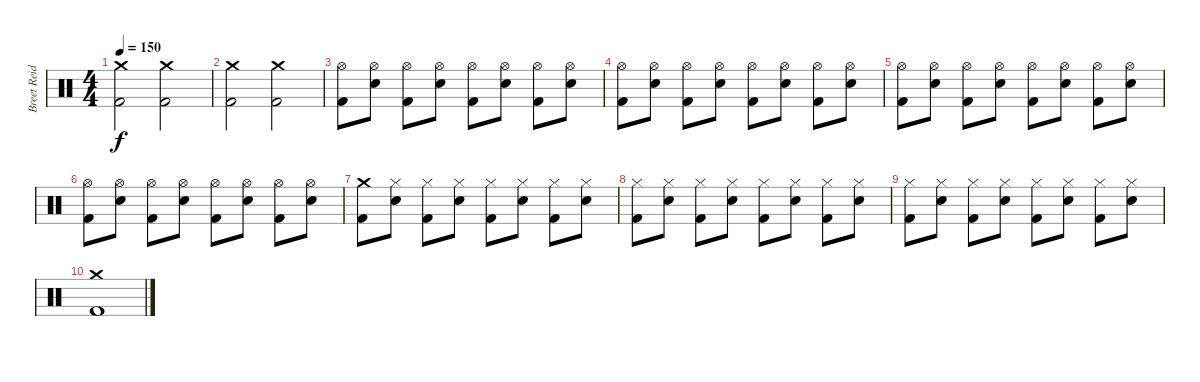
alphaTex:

\track ("Breet Reid" "Breet Reid") {instrument percussion}
\staff {score}
\articulation defaults
\ts (4 4)
\tempo 150
\clef neutral
\ks c
("Crash medium (hit)" "Kick (hit) 2").2{dy f} ("Crash medium (hit)" "Kick (hit) 2").2 |
("Crash medium (hit)" "Kick (hit) 2").2 ("Crash medium (hit)" "Kick (hit) 2").2 |
("Hi-Hat (open)" "Kick (hit) 2").8 ("Hi-Hat (open)" "Snare (hit) 2").8 ("Hi-Hat (open)" "Kick (hit) 2").8 ("Hi-Hat (open)" "Snare (hit) 2").8 ("Hi-Hat (open)" "Kick (hit) 2").8 ("Hi-Hat (open)" "Snare (hit) 2").8 ("Hi-Hat (open)" "Kick (hit) 2").8 ("Hi-Hat (open)" "Snare (hit) 2").8 |
("Hi-Hat (open)" "Kick (hit) 2").8 ("Hi-Hat (open)" "Snare (hit) 2").8 ("Hi-Hat (open)" "Kick (hit) 2").8 ("Hi-Hat (open)" "Snare (hit) 2").8 ("Hi-Hat (open)" "Kick (hit) 2").8 ("Hi-Hat (open)" "Snare (hit) 2").8 ("Hi-Hat (open)" "Kick (hit) 2").8 ("Hi-Hat (open)" "Snare (hit) 2").8 |
("Hi-Hat (open)" "Kick (hit) 2").8 ("Hi-Hat (open)" "Snare (hit) 2").8 ("Hi-Hat (open)" "Kick (hit) 2").8 ("Hi-Hat (open)" "Snare (hit) 2").8 ("Hi-Hat (open)" "Kick (hit) 2").8 ("Hi-Hat (open)" "Snare (hit) 2").8 ("Hi-Hat (open)" "Kick (hit) 2").8 ("Hi-Hat (open)" "Snare (hit) 2").8 |
("Hi-Hat (open)" "Kick (hit) 2").8 ("Hi-Hat (open)" "Snare (hit) 2").8 ("Hi-Hat (open)" "Kick (hit) 2").8 ("Hi-Hat (open)" "Snare (hit) 2").8 ("Hi-Hat (open)" "Kick (hit) 2").8 ("Hi-Hat (open)" "Snare (hit) 2").8 ("Hi-Hat (open)" "Kick (hit) 2").8 ("Hi-Hat (open)" "Snare (hit) 2").8 |
("Crash medium (hit)" "Kick (hit) 2").8 ("Hi-Hat (closed)" "Snare (hit) 2").8 ("Hi-Hat (closed)" "Kick (hit) 2").8 ("Hi-Hat (closed)" "Snare (hit) 2").8 ("Hi-Hat (closed)" "Kick (hit) 2").8 ("Hi-Hat (closed)" "Snare (hit) 2").8 ("Hi-Hat (closed)" "Kick (hit) 2").8 ("Hi-Hat (closed)" "Snare (hit) 2").8 |
("Hi-Hat (closed)" "Kick (hit) 2").8 ("Hi-Hat (closed)" "Snare (hit) 2").8 ("Hi-Hat (closed)" "Kick (hit) 2").8 ("Hi-Hat (closed)" "Snare (hit) 2").8 ("Hi-Hat (closed)" "Kick (hit) 2").8 ("Hi-Hat (closed)" "Snare (hit) 2").8 ("Hi-Hat (closed)" "Kick (hit) 2").8 ("Hi-Hat (closed)" "Snare (hit) 2").8 |
("Hi-Hat (closed)" "Kick (hit) 2").8 ("Hi-Hat (closed)" "Snare (hit) 2").8 ("Hi-Hat (closed)" "Kick (hit) 2").8 ("Hi-Hat (closed)" "Snare (hit) 2").8 ("Hi-Hat (closed)" "Kick (hit) 2").8 ("Hi-Hat (closed)" "Snare (hit) 2").8 ("Hi-Hat (closed)" "Kick (hit) 2").8 ("Hi-Hat (closed)" "Snare (hit) 2").8 |
("Crash medium (hit)" "Kick (hit) 2").1
